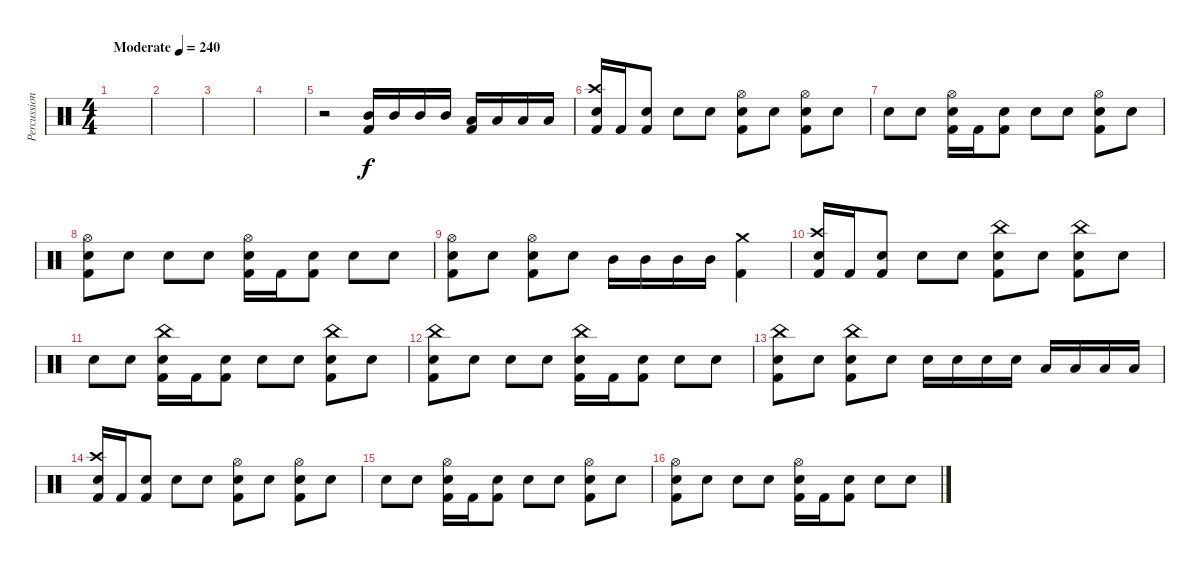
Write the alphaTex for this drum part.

\track ("Percussion" "Percussion") {solo instrument percussion}
\staff {score}
\articulation defaults
\ts (4 4)
\tempo (240 "Moderate")
\clef neutral
\ks c
|
|
|
|
r.2 ("Mid Tom (hit)" "Kick (hit) 2").16 "Mid Tom (hit)".16 "Mid Tom (hit)".16 "Mid Tom (hit)".16 ("Low Tom (hit)" "Kick (hit) 2").16 "Low Tom (hit)".16 "Low Tom (hit)".16 "Low Tom (hit)".16 |
("Crash high (hit)" "Electric Snare (hit)" "Kick (hit) 2").16 "Kick (hit) 2".16 ("Electric Snare (hit)" "Kick (hit) 2").8 "Electric Snare (hit)".8 "Electric Snare (hit)".8 ("Hi-Hat (open)" "Electric Snare (hit)" "Kick (hit) 2").8 "Electric Snare (hit)".8 ("Hi-Hat (open)" "Electric Snare (hit)" "Kick (hit) 2").8 "Electric Snare (hit)".8 |
"Electric Snare (hit)".8 "Electric Snare (hit)".8 ("Hi-Hat (open)" "Electric Snare (hit)" "Kick (hit) 2").16 "Kick (hit) 2".16 ("Electric Snare (hit)" "Kick (hit) 2").8 "Electric Snare (hit)".8 "Electric Snare (hit)".8 ("Hi-Hat (open)" "Electric Snare (hit)" "Kick (hit) 2").8 "Electric Snare (hit)".8 |
("Hi-Hat (open)" "Electric Snare (hit)" "Kick (hit) 2").8 "Electric Snare (hit)".8 "Electric Snare (hit)".8 "Electric Snare (hit)".8 ("Hi-Hat (open)" "Electric Snare (hit)" "Kick (hit) 2").16 "Kick (hit) 2".16 ("Electric Snare (hit)" "Kick (hit) 2").8 "Electric Snare (hit)".8 "Electric Snare (hit)".8 |
("Hi-Hat (open)" "Electric Snare (hit)" "Kick (hit) 2").8 "Electric Snare (hit)".8 ("Hi-Hat (open)" "Electric Snare (hit)" "Kick (hit) 2").8 "Electric Snare (hit)".8 "Mid Tom (hit)".16 "Mid Tom (hit)".16 "Mid Tom (hit)".16 "Mid Tom (hit)".16 ("Crash medium (hit)" "Kick (hit) 2").4 |
("Crash high (hit)" "Electric Snare (hit)" "Kick (hit) 2").16 "Kick (hit) 2".16 ("Electric Snare (hit)" "Kick (hit) 2").8 "Electric Snare (hit)".8 "Electric Snare (hit)".8 ("China (hit)" "Electric Snare (hit)" "Kick (hit) 2").8 "Electric Snare (hit)".8 ("China (hit)" "Electric Snare (hit)" "Kick (hit) 2").8 "Electric Snare (hit)".8 |
"Electric Snare (hit)".8 "Electric Snare (hit)".8 ("China (hit)" "Electric Snare (hit)" "Kick (hit) 2").16 "Kick (hit) 2".16 ("Electric Snare (hit)" "Kick (hit) 2").8 "Electric Snare (hit)".8 "Electric Snare (hit)".8 ("China (hit)" "Electric Snare (hit)" "Kick (hit) 2").8 "Electric Snare (hit)".8 |
("China (hit)" "Electric Snare (hit)" "Kick (hit) 2").8 "Electric Snare (hit)".8 "Electric Snare (hit)".8 "Electric Snare (hit)".8 ("China (hit)" "Electric Snare (hit)" "Kick (hit) 2").16 "Kick (hit) 2".16 ("Electric Snare (hit)" "Kick (hit) 2").8 "Electric Snare (hit)".8 "Electric Snare (hit)".8 |
("China (hit)" "Electric Snare (hit)" "Kick (hit) 2").8 "Electric Snare (hit)".8 ("China (hit)" "Electric Snare (hit)" "Kick (hit) 2").8 "Electric Snare (hit)".8 "Electric Snare (hit)".16 "Electric Snare (hit)".16 "Electric Snare (hit)".16 "Electric Snare (hit)".16 "Low Tom (hit)".16 "Low Tom (hit)".16 "Low Tom (hit)".16 "Low Tom (hit)".16 |
("Crash high (hit)" "Electric Snare (hit)" "Kick (hit) 2").16 "Kick (hit) 2".16 ("Electric Snare (hit)" "Kick (hit) 2").8 "Electric Snare (hit)".8 "Electric Snare (hit)".8 ("Hi-Hat (open)" "Electric Snare (hit)" "Kick (hit) 2").8 "Electric Snare (hit)".8 ("Hi-Hat (open)" "Electric Snare (hit)" "Kick (hit) 2").8 "Electric Snare (hit)".8 |
"Electric Snare (hit)".8 "Electric Snare (hit)".8 ("Hi-Hat (open)" "Electric Snare (hit)" "Kick (hit) 2").16 "Kick (hit) 2".16 ("Electric Snare (hit)" "Kick (hit) 2").8 "Electric Snare (hit)".8 "Electric Snare (hit)".8 ("Hi-Hat (open)" "Electric Snare (hit)" "Kick (hit) 2").8 "Electric Snare (hit)".8 |
("Hi-Hat (open)" "Electric Snare (hit)" "Kick (hit) 2").8 "Electric Snare (hit)".8 "Electric Snare (hit)".8 "Electric Snare (hit)".8 ("Hi-Hat (open)" "Electric Snare (hit)" "Kick (hit) 2").16 "Kick (hit) 2".16 ("Electric Snare (hit)" "Kick (hit) 2").8 "Electric Snare (hit)".8 "Electric Snare (hit)".8
